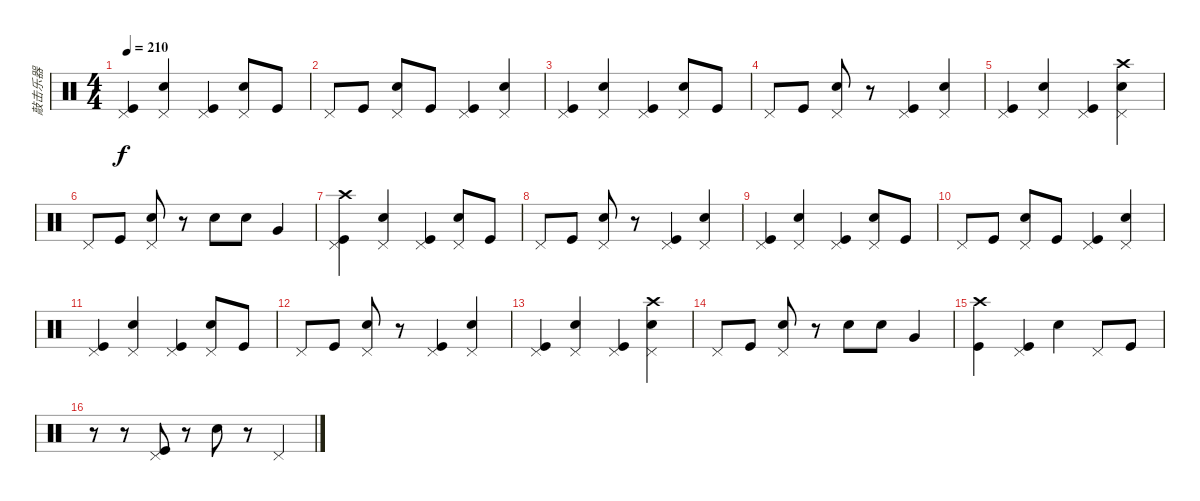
\track ("敲击乐器" "敲击乐器") {instrument percussion}
\staff {score}
\articulation defaults
\ts (4 4)
\tempo 210
\clef neutral
\ks c
("Pedal Hi-Hat (hit)" "Kick (hit)").4{dy f} ("Pedal Hi-Hat (hit)" "Snare (hit) 2").4 ("Pedal Hi-Hat (hit)" "Kick (hit)").4 ("Pedal Hi-Hat (hit)" "Snare (hit) 2").8 "Kick (hit)".8 |
"Pedal Hi-Hat (hit)".8 "Kick (hit)".8 ("Pedal Hi-Hat (hit)" "Snare (hit) 2").8 "Kick (hit)".8 ("Kick (hit)" "Pedal Hi-Hat (hit)").4 ("Snare (hit) 2" "Pedal Hi-Hat (hit)").4 |
("Pedal Hi-Hat (hit)" "Kick (hit)").4 ("Pedal Hi-Hat (hit)" "Snare (hit) 2").4 ("Pedal Hi-Hat (hit)" "Kick (hit)").4 ("Pedal Hi-Hat (hit)" "Snare (hit) 2").8 "Kick (hit)".8 |
"Pedal Hi-Hat (hit)".8 "Kick (hit)".8 ("Pedal Hi-Hat (hit)" "Snare (hit) 2").8 r.8 ("Kick (hit)" "Pedal Hi-Hat (hit)").4 ("Snare (hit) 2" "Pedal Hi-Hat (hit)").4 |
("Pedal Hi-Hat (hit)" "Kick (hit)").4 ("Pedal Hi-Hat (hit)" "Snare (hit) 2").4 ("Pedal Hi-Hat (hit)" "Kick (hit)").4 ("Crash high (hit)" "Pedal Hi-Hat (hit)" "Snare (hit) 2").4 |
"Pedal Hi-Hat (hit)".8 "Kick (hit)".8 ("Pedal Hi-Hat (hit)" "Snare (hit) 2").8 r.8 "Snare (hit) 2".8 "Snare (hit) 2".8 "Very Low Tom (hit)".4 |
("Crash high (hit)" "Pedal Hi-Hat (hit)" "Kick (hit)").4 ("Pedal Hi-Hat (hit)" "Snare (hit) 2").4 ("Pedal Hi-Hat (hit)" "Kick (hit)").4 ("Pedal Hi-Hat (hit)" "Snare (hit) 2").8 "Kick (hit)".8 |
"Pedal Hi-Hat (hit)".8 "Kick (hit)".8 ("Pedal Hi-Hat (hit)" "Snare (hit) 2").8 r.8 ("Kick (hit)" "Pedal Hi-Hat (hit)").4 ("Snare (hit) 2" "Pedal Hi-Hat (hit)").4 |
("Pedal Hi-Hat (hit)" "Kick (hit)").4 ("Pedal Hi-Hat (hit)" "Snare (hit) 2").4 ("Pedal Hi-Hat (hit)" "Kick (hit)").4 ("Pedal Hi-Hat (hit)" "Snare (hit) 2").8 "Kick (hit)".8 |
"Pedal Hi-Hat (hit)".8 "Kick (hit)".8 ("Pedal Hi-Hat (hit)" "Snare (hit) 2").8 "Kick (hit)".8 ("Kick (hit)" "Pedal Hi-Hat (hit)").4 ("Snare (hit) 2" "Pedal Hi-Hat (hit)").4 |
("Pedal Hi-Hat (hit)" "Kick (hit)").4 ("Pedal Hi-Hat (hit)" "Snare (hit) 2").4 ("Pedal Hi-Hat (hit)" "Kick (hit)").4 ("Pedal Hi-Hat (hit)" "Snare (hit) 2").8 "Kick (hit)".8 |
"Pedal Hi-Hat (hit)".8 "Kick (hit)".8 ("Pedal Hi-Hat (hit)" "Snare (hit) 2").8 r.8 ("Kick (hit)" "Pedal Hi-Hat (hit)").4 ("Snare (hit) 2" "Pedal Hi-Hat (hit)").4 |
("Pedal Hi-Hat (hit)" "Kick (hit)").4 ("Pedal Hi-Hat (hit)" "Snare (hit) 2").4 ("Pedal Hi-Hat (hit)" "Kick (hit)").4 ("Crash high (hit)" "Pedal Hi-Hat (hit)" "Snare (hit) 2").4 |
"Pedal Hi-Hat (hit)".8 "Kick (hit)".8 ("Pedal Hi-Hat (hit)" "Snare (hit) 2").8 r.8 "Snare (hit) 2".8 "Snare (hit) 2".8 "Very Low Tom (hit)".4 |
("Crash high (hit)" "Kick (hit)").4 ("Kick (hit)" "Pedal Hi-Hat (hit)").4 "Snare (hit) 2".4 "Pedal Hi-Hat (hit)".8 "Kick (hit)".8 |
r.8 r.8 ("Kick (hit)" "Pedal Hi-Hat (hit)").8 r.8 "Snare (hit) 2".8 r.8 "Pedal Hi-Hat (hit)".4
